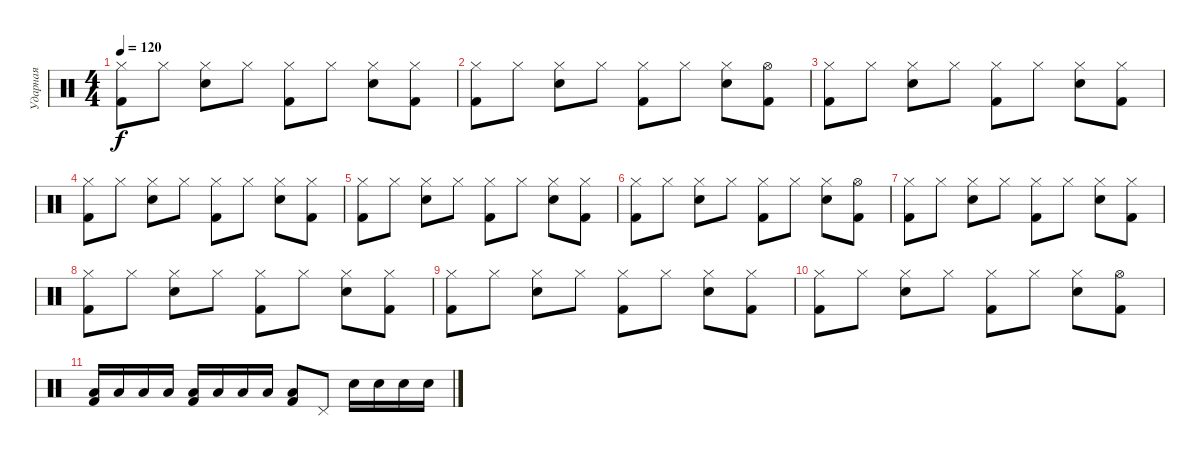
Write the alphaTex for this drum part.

\track ("Ударная" "Ударная") {instrument percussion}
\staff {score}
\articulation defaults
\ts (4 4)
\tempo 120
\clef neutral
\ks c
("Hi-Hat (closed)" "Kick (hit) 2").8{dy f} "Hi-Hat (closed)".8 ("Hi-Hat (closed)" "Electric Snare (hit)").8 "Hi-Hat (closed)".8 ("Hi-Hat (closed)" "Kick (hit) 2").8 "Hi-Hat (closed)".8 ("Hi-Hat (closed)" "Electric Snare (hit)").8 ("Hi-Hat (closed)" "Kick (hit) 2").8 |
("Hi-Hat (closed)" "Kick (hit) 2").8 "Hi-Hat (closed)".8 ("Hi-Hat (closed)" "Electric Snare (hit)").8 "Hi-Hat (closed)".8 ("Hi-Hat (closed)" "Kick (hit) 2").8 "Hi-Hat (closed)".8 ("Hi-Hat (closed)" "Electric Snare (hit)").8 ("Hi-Hat (open)" "Kick (hit) 2").8 |
("Hi-Hat (closed)" "Kick (hit) 2").8 "Hi-Hat (closed)".8 ("Hi-Hat (closed)" "Electric Snare (hit)").8 "Hi-Hat (closed)".8 ("Hi-Hat (closed)" "Kick (hit) 2").8 "Hi-Hat (closed)".8 ("Hi-Hat (closed)" "Electric Snare (hit)").8 ("Hi-Hat (closed)" "Kick (hit) 2").8 |
("Hi-Hat (closed)" "Kick (hit) 2").8 "Hi-Hat (closed)".8 ("Hi-Hat (closed)" "Electric Snare (hit)").8 "Hi-Hat (closed)".8 ("Hi-Hat (closed)" "Kick (hit) 2").8 "Hi-Hat (closed)".8 ("Hi-Hat (closed)" "Electric Snare (hit)").8 ("Hi-Hat (closed)" "Kick (hit) 2").8 |
("Hi-Hat (closed)" "Kick (hit) 2").8 "Hi-Hat (closed)".8 ("Hi-Hat (closed)" "Electric Snare (hit)").8 "Hi-Hat (closed)".8 ("Hi-Hat (closed)" "Kick (hit) 2").8 "Hi-Hat (closed)".8 ("Hi-Hat (closed)" "Electric Snare (hit)").8 ("Hi-Hat (closed)" "Kick (hit) 2").8 |
("Hi-Hat (closed)" "Kick (hit) 2").8 "Hi-Hat (closed)".8 ("Hi-Hat (closed)" "Electric Snare (hit)").8 "Hi-Hat (closed)".8 ("Hi-Hat (closed)" "Kick (hit) 2").8 "Hi-Hat (closed)".8 ("Hi-Hat (closed)" "Electric Snare (hit)").8 ("Hi-Hat (open)" "Kick (hit) 2").8 |
("Hi-Hat (closed)" "Kick (hit) 2").8 "Hi-Hat (closed)".8 ("Hi-Hat (closed)" "Electric Snare (hit)").8 "Hi-Hat (closed)".8 ("Hi-Hat (closed)" "Kick (hit) 2").8 "Hi-Hat (closed)".8 ("Hi-Hat (closed)" "Electric Snare (hit)").8 ("Hi-Hat (closed)" "Kick (hit) 2").8 |
("Hi-Hat (closed)" "Kick (hit) 2").8 "Hi-Hat (closed)".8 ("Hi-Hat (closed)" "Electric Snare (hit)").8 "Hi-Hat (closed)".8 ("Hi-Hat (closed)" "Kick (hit) 2").8 "Hi-Hat (closed)".8 ("Hi-Hat (closed)" "Electric Snare (hit)").8 ("Hi-Hat (closed)" "Kick (hit) 2").8 |
("Hi-Hat (closed)" "Kick (hit) 2").8 "Hi-Hat (closed)".8 ("Hi-Hat (closed)" "Electric Snare (hit)").8 "Hi-Hat (closed)".8 ("Hi-Hat (closed)" "Kick (hit) 2").8 "Hi-Hat (closed)".8 ("Hi-Hat (closed)" "Electric Snare (hit)").8 ("Hi-Hat (closed)" "Kick (hit) 2").8 |
("Hi-Hat (closed)" "Kick (hit) 2").8 "Hi-Hat (closed)".8 ("Hi-Hat (closed)" "Electric Snare (hit)").8 "Hi-Hat (closed)".8 ("Hi-Hat (closed)" "Kick (hit) 2").8 "Hi-Hat (closed)".8 ("Hi-Hat (closed)" "Electric Snare (hit)").8 ("Hi-Hat (open)" "Kick (hit) 2").8 |
("Low Tom (hit)" "Kick (hit) 2").16 "Low Tom (hit)".16 "Low Tom (hit)".16 "Low Tom (hit)".16 ("Low Tom (hit)" "Kick (hit) 2").16 "Low Tom (hit)".16 "Low Tom (hit)".16 "Low Tom (hit)".16 ("Low Tom (hit)" "Kick (hit) 2").8 "Pedal Hi-Hat (hit)".8 "Snare (hit) 2".16 "Snare (hit) 2".16 "Snare (hit) 2".16 "Snare (hit) 2".16
